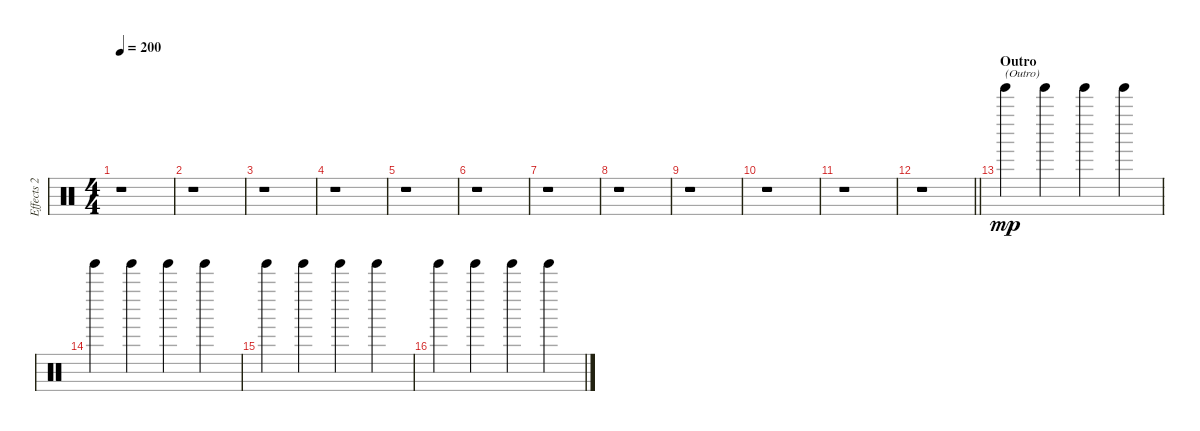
\track ("Effects 2" "Effects 2") {instrument percussion}
\staff {score}
\articulation defaults
\ts (4 4)
\tempo 200
\clef neutral
\ks c
r.1{dy mp} |
r.1 |
r.1 |
r.1 |
r.1 |
r.1 |
r.1 |
r.1 |
r.1 |
r.1 |
r.1 |
\barLineRight lightlight
r.1 |
\section ("" "Outro")
"Tinkle Bell (hit)".4{txt "(Outro)"} "Tinkle Bell (hit)".4 "Tinkle Bell (hit)".4 "Tinkle Bell (hit)".4 |
"Tinkle Bell (hit)".4 "Tinkle Bell (hit)".4 "Tinkle Bell (hit)".4 "Tinkle Bell (hit)".4 |
"Tinkle Bell (hit)".4 "Tinkle Bell (hit)".4 "Tinkle Bell (hit)".4 "Tinkle Bell (hit)".4 |
"Tinkle Bell (hit)".4 "Tinkle Bell (hit)".4 "Tinkle Bell (hit)".4 "Tinkle Bell (hit)".4
